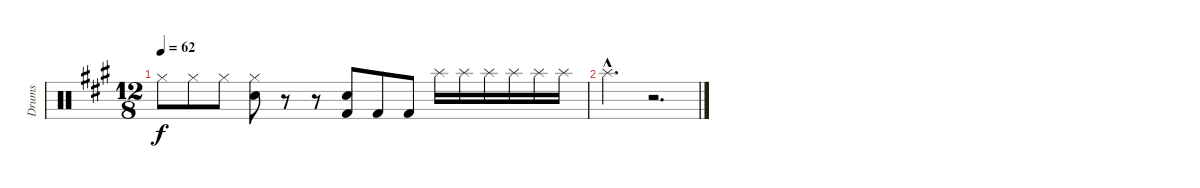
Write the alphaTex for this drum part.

\track ("Drums" "Drums") {instrument percussion}
\staff {score}
\articulation defaults
\ts (12 8)
\tempo 62
\clef neutral
\ks a "Hi-Hat (closed)".8{dy f} "Hi-Hat (closed)".8 "Hi-Hat (closed)".8
("Hi-Hat (closed)" "Snare (hit) 2").8 r.8 r.8 ("Snare (hit) 2" "Kick (hit) 2").8 "Kick (hit) 2".8 "Kick (hit) 2".8 "Splash (hit)".16 "Splash (hit)".16 "Splash (hit)".16 "Splash (hit)".16 "Splash (hit)".16 "Splash (hit)".16 |
"Splash (hit)"{hac}.2{d} r.2{d}
